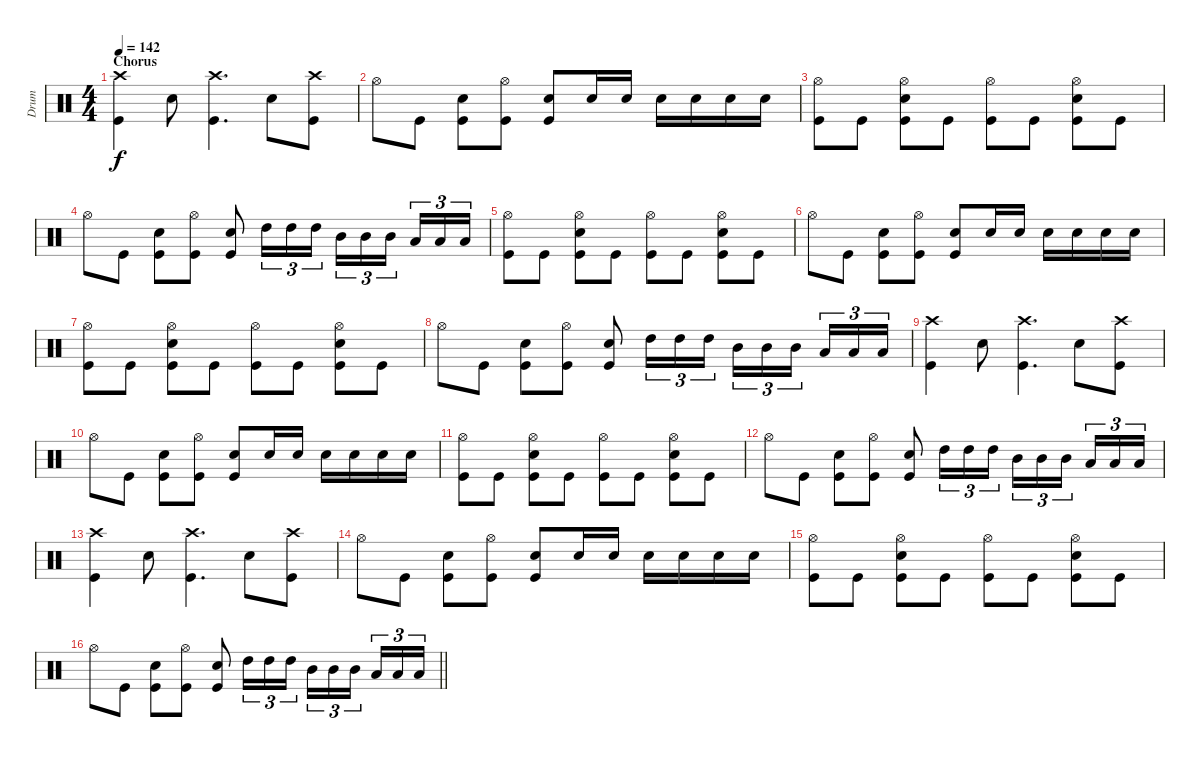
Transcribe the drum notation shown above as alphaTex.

\track ("Drum" "Drum") {instrument percussion}
\staff {score}
\articulation defaults
\ts (4 4)
\section ("" "Chorus")
\tempo 147
\tempo 142
\clef neutral
\ks c
("Kick (hit)" "Crash high (hit)").4{dy f} "Snare (hit) 2".8 ("Kick (hit)" "Crash high (hit)").4{d} "Snare (hit) 2".8 ("Kick (hit)" "Crash high (hit)").8 |
"Hi-Hat (open)".8 "Kick (hit)".8 ("Kick (hit)" "Snare (hit) 2").8 ("Kick (hit)" "Hi-Hat (open)").8 ("Kick (hit)" "Snare (hit) 2").8 "Snare (hit) 2".16 "Snare (hit) 2".16 "Snare (hit) 2".16 "Snare (hit) 2".16 "Snare (hit) 2".16 "Snare (hit) 2".16 |
("Hi-Hat (open)" "Kick (hit)").8 "Kick (hit)".8 ("Hi-Hat (open)" "Snare (hit) 2" "Kick (hit)").8 "Kick (hit)".8 ("Hi-Hat (open)" "Kick (hit)").8 "Kick (hit)".8 ("Hi-Hat (open)" "Snare (hit) 2" "Kick (hit)").8 "Kick (hit)".8 |
"Hi-Hat (open)".8 "Kick (hit)".8 ("Kick (hit)" "Snare (hit) 2").8 ("Kick (hit)" "Hi-Hat (open)").8 ("Kick (hit)" "Snare (hit) 2").8 "High Tom (hit)".16{tu (3 2)} "High Tom (hit)".16{tu (3 2)} "High Tom (hit)".16{tu (3 2)} "Mid Tom (hit)".16{tu (3 2)} "Mid Tom (hit)".16{tu (3 2)} "Mid Tom (hit)".16{tu (3 2) beam splitsecondary} "Low Tom (hit)".16{tu (3 2)} "Low Tom (hit)".16{tu (3 2)} "Low Tom (hit)".16{tu (3 2)} |
("Hi-Hat (open)" "Kick (hit)").8 "Kick (hit)".8 ("Hi-Hat (open)" "Snare (hit) 2" "Kick (hit)").8 "Kick (hit)".8 ("Hi-Hat (open)" "Kick (hit)").8 "Kick (hit)".8 ("Hi-Hat (open)" "Snare (hit) 2" "Kick (hit)").8 "Kick (hit)".8 |
"Hi-Hat (open)".8 "Kick (hit)".8 ("Kick (hit)" "Snare (hit) 2").8 ("Kick (hit)" "Hi-Hat (open)").8 ("Kick (hit)" "Snare (hit) 2").8 "Snare (hit) 2".16 "Snare (hit) 2".16 "Snare (hit) 2".16 "Snare (hit) 2".16 "Snare (hit) 2".16 "Snare (hit) 2".16 |
("Hi-Hat (open)" "Kick (hit)").8 "Kick (hit)".8 ("Hi-Hat (open)" "Snare (hit) 2" "Kick (hit)").8 "Kick (hit)".8 ("Hi-Hat (open)" "Kick (hit)").8 "Kick (hit)".8 ("Hi-Hat (open)" "Snare (hit) 2" "Kick (hit)").8 "Kick (hit)".8 |
"Hi-Hat (open)".8 "Kick (hit)".8 ("Kick (hit)" "Snare (hit) 2").8 ("Kick (hit)" "Hi-Hat (open)").8 ("Kick (hit)" "Snare (hit) 2").8 "High Tom (hit)".16{tu (3 2)} "High Tom (hit)".16{tu (3 2)} "High Tom (hit)".16{tu (3 2)} "Mid Tom (hit)".16{tu (3 2)} "Mid Tom (hit)".16{tu (3 2)} "Mid Tom (hit)".16{tu (3 2) beam splitsecondary} "Low Tom (hit)".16{tu (3 2)} "Low Tom (hit)".16{tu (3 2)} "Low Tom (hit)".16{tu (3 2)} |
("Kick (hit)" "Crash high (hit)").4 "Snare (hit) 2".8 ("Kick (hit)" "Crash high (hit)").4{d} "Snare (hit) 2".8 ("Kick (hit)" "Crash high (hit)").8 |
"Hi-Hat (open)".8 "Kick (hit)".8 ("Kick (hit)" "Snare (hit) 2").8 ("Kick (hit)" "Hi-Hat (open)").8 ("Kick (hit)" "Snare (hit) 2").8 "Snare (hit) 2".16 "Snare (hit) 2".16 "Snare (hit) 2".16 "Snare (hit) 2".16 "Snare (hit) 2".16 "Snare (hit) 2".16 |
("Hi-Hat (open)" "Kick (hit)").8 "Kick (hit)".8 ("Hi-Hat (open)" "Snare (hit) 2" "Kick (hit)").8 "Kick (hit)".8 ("Hi-Hat (open)" "Kick (hit)").8 "Kick (hit)".8 ("Hi-Hat (open)" "Snare (hit) 2" "Kick (hit)").8 "Kick (hit)".8 |
"Hi-Hat (open)".8 "Kick (hit)".8 ("Kick (hit)" "Snare (hit) 2").8 ("Kick (hit)" "Hi-Hat (open)").8 ("Kick (hit)" "Snare (hit) 2").8 "High Tom (hit)".16{tu (3 2)} "High Tom (hit)".16{tu (3 2)} "High Tom (hit)".16{tu (3 2)} "Mid Tom (hit)".16{tu (3 2)} "Mid Tom (hit)".16{tu (3 2)} "Mid Tom (hit)".16{tu (3 2) beam splitsecondary} "Low Tom (hit)".16{tu (3 2)} "Low Tom (hit)".16{tu (3 2)} "Low Tom (hit)".16{tu (3 2)} |
("Kick (hit)" "Crash high (hit)").4 "Snare (hit) 2".8 ("Kick (hit)" "Crash high (hit)").4{d} "Snare (hit) 2".8 ("Kick (hit)" "Crash high (hit)").8 |
"Hi-Hat (open)".8 "Kick (hit)".8 ("Kick (hit)" "Snare (hit) 2").8 ("Kick (hit)" "Hi-Hat (open)").8 ("Kick (hit)" "Snare (hit) 2").8 "Snare (hit) 2".16 "Snare (hit) 2".16 "Snare (hit) 2".16 "Snare (hit) 2".16 "Snare (hit) 2".16 "Snare (hit) 2".16 |
("Hi-Hat (open)" "Kick (hit)").8 "Kick (hit)".8 ("Hi-Hat (open)" "Snare (hit) 2" "Kick (hit)").8 "Kick (hit)".8 ("Hi-Hat (open)" "Kick (hit)").8 "Kick (hit)".8 ("Hi-Hat (open)" "Snare (hit) 2" "Kick (hit)").8 "Kick (hit)".8 |
\barLineRight lightlight "Hi-Hat (open)".8 "Kick (hit)".8
("Kick (hit)" "Snare (hit) 2").8 ("Kick (hit)" "Hi-Hat (open)").8 ("Kick (hit)" "Snare (hit) 2").8 "High Tom (hit)".16{tu (3 2)} "High Tom (hit)".16{tu (3 2)} "High Tom (hit)".16{tu (3 2)} "Mid Tom (hit)".16{tu (3 2)} "Mid Tom (hit)".16{tu (3 2)} "Mid Tom (hit)".16{tu (3 2) beam splitsecondary} "Low Tom (hit)".16{tu (3 2)} "Low Tom (hit)".16{tu (3 2)} "Low Tom (hit)".16{tu (3 2)}
